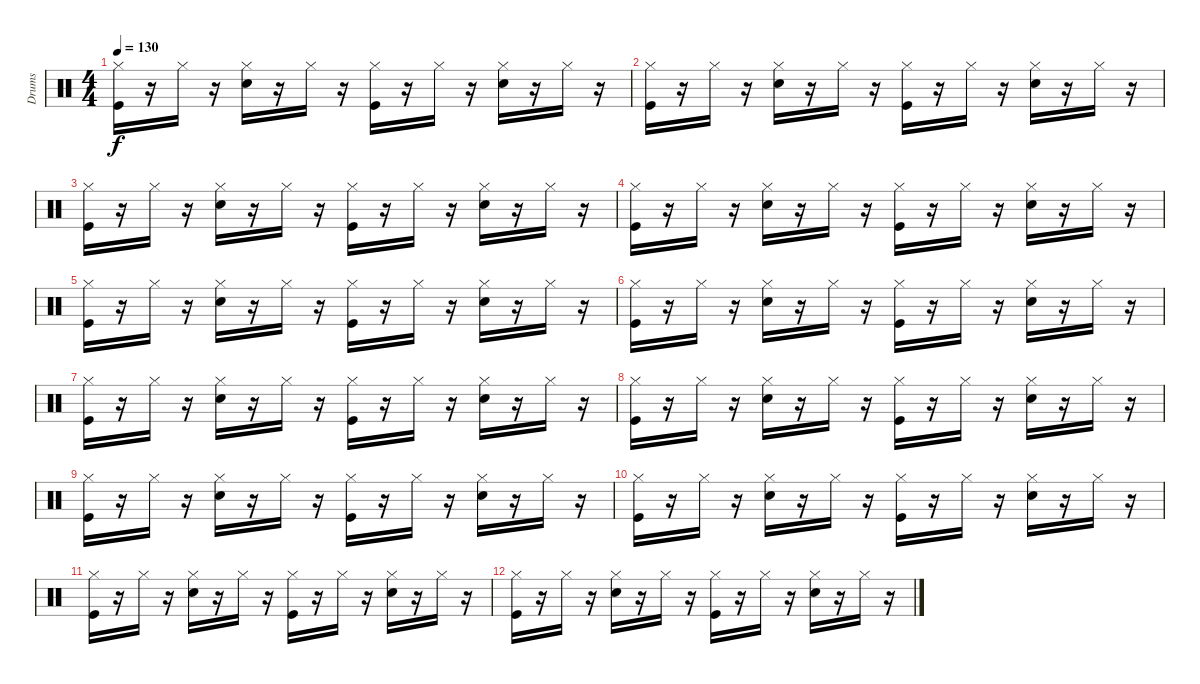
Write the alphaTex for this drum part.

\track ("Drums" "Drums") {instrument percussion}
\staff {score}
\articulation defaults
\ts (4 4)
\tempo 130
\clef neutral
\ks c
("Kick (hit)" "Hi-Hat (closed)").16{dy f volume 11} r.16 "Hi-Hat (closed)".16{volume 11} r.16 ("Snare (hit) 2" "Hi-Hat (closed)").16{volume 10} r.16 "Hi-Hat (closed)".16 r.16 ("Kick (hit)" "Hi-Hat (closed)").16{volume 10} r.16 "Hi-Hat (closed)".16{volume 10} r.16 ("Snare (hit) 2" "Hi-Hat (closed)").16{volume 10} r.16 "Hi-Hat (closed)".16{volume 10} r.16 |
("Kick (hit)" "Hi-Hat (closed)").16{volume 10} r.16 "Hi-Hat (closed)".16{volume 10} r.16 ("Snare (hit) 2" "Hi-Hat (closed)").16{volume 10} r.16 "Hi-Hat (closed)".16{volume 9} r.16 ("Kick (hit)" "Hi-Hat (closed)").16 r.16 "Hi-Hat (closed)".16{volume 9} r.16 ("Snare (hit) 2" "Hi-Hat (closed)").16{volume 9} r.16 "Hi-Hat (closed)".16{volume 9} r.16 |
("Kick (hit)" "Hi-Hat (closed)").16{volume 9} r.16 "Hi-Hat (closed)".16{volume 9} r.16 ("Snare (hit) 2" "Hi-Hat (closed)").16{volume 9} r.16 "Hi-Hat (closed)".16{volume 9} r.16 ("Kick (hit)" "Hi-Hat (closed)").16 r.16 "Hi-Hat (closed)".16{volume 8} r.16 ("Snare (hit) 2" "Hi-Hat (closed)").16{volume 8} r.16 "Hi-Hat (closed)".16{volume 8} r.16 |
("Kick (hit)" "Hi-Hat (closed)").16{volume 8} r.16 "Hi-Hat (closed)".16{volume 8} r.16 ("Snare (hit) 2" "Hi-Hat (closed)").16{volume 8} r.16 "Hi-Hat (closed)".16{volume 8} r.16 ("Kick (hit)" "Hi-Hat (closed)").16{volume 8} r.16 "Hi-Hat (closed)".16 r.16 ("Snare (hit) 2" "Hi-Hat (closed)").16{volume 7} r.16 "Hi-Hat (closed)".16{volume 7} r.16 |
("Kick (hit)" "Hi-Hat (closed)").16{volume 7} r.16 "Hi-Hat (closed)".16{volume 7} r.16 ("Snare (hit) 2" "Hi-Hat (closed)").16{volume 7} r.16 "Hi-Hat (closed)".16{volume 7} r.16 ("Kick (hit)" "Hi-Hat (closed)").16{volume 7} r.16 "Hi-Hat (closed)".16 r.16 ("Snare (hit) 2" "Hi-Hat (closed)").16{volume 7} r.16 "Hi-Hat (closed)".16{volume 6} r.16 |
("Kick (hit)" "Hi-Hat (closed)").16{volume 6} r.16 "Hi-Hat (closed)".16{volume 6} r.16 ("Snare (hit) 2" "Hi-Hat (closed)").16{volume 6} r.16 "Hi-Hat (closed)".16{volume 6} r.16 ("Kick (hit)" "Hi-Hat (closed)").16{volume 6} r.16 "Hi-Hat (closed)".16{volume 6} r.16 ("Snare (hit) 2" "Hi-Hat (closed)").16 r.16 "Hi-Hat (closed)".16{volume 6} r.16 |
("Kick (hit)" "Hi-Hat (closed)").16{volume 5} r.16 "Hi-Hat (closed)".16{volume 5} r.16 ("Snare (hit) 2" "Hi-Hat (closed)").16{volume 5} r.16 "Hi-Hat (closed)".16{volume 5} r.16 ("Kick (hit)" "Hi-Hat (closed)").16{volume 5} r.16 "Hi-Hat (closed)".16{volume 5} r.16 ("Snare (hit) 2" "Hi-Hat (closed)").16 r.16 "Hi-Hat (closed)".16{volume 5} r.16 |
("Kick (hit)" "Hi-Hat (closed)").16{volume 5} r.16 "Hi-Hat (closed)".16{volume 4} r.16 ("Snare (hit) 2" "Hi-Hat (closed)").16{volume 4} r.16 "Hi-Hat (closed)".16{volume 4} r.16 ("Kick (hit)" "Hi-Hat (closed)").16{volume 4} r.16 "Hi-Hat (closed)".16{volume 4} r.16 ("Snare (hit) 2" "Hi-Hat (closed)").16{volume 4} r.16 "Hi-Hat (closed)".16 r.16 |
("Kick (hit)" "Hi-Hat (closed)").16{volume 4} r.16 "Hi-Hat (closed)".16{volume 4} r.16 ("Snare (hit) 2" "Hi-Hat (closed)").16{volume 3} r.16 "Hi-Hat (closed)".16{volume 3} r.16 ("Kick (hit)" "Hi-Hat (closed)").16{volume 3} r.16 "Hi-Hat (closed)".16{volume 3} r.16 ("Snare (hit) 2" "Hi-Hat (closed)").16{volume 3} r.16 "Hi-Hat (closed)".16 r.16 |
("Kick (hit)" "Hi-Hat (closed)").16{volume 3} r.16 "Hi-Hat (closed)".16{volume 3} r.16 ("Snare (hit) 2" "Hi-Hat (closed)").16{volume 3} r.16 "Hi-Hat (closed)".16{volume 2} r.16 ("Kick (hit)" "Hi-Hat (closed)").16{volume 2} r.16 "Hi-Hat (closed)".16{volume 2} r.16 ("Snare (hit) 2" "Hi-Hat (closed)").16{volume 2} r.16 "Hi-Hat (closed)".16{volume 2} r.16 |
("Kick (hit)" "Hi-Hat (closed)").16 r.16 "Hi-Hat (closed)".16{volume 2} r.16 ("Snare (hit) 2" "Hi-Hat (closed)").16{volume 2} r.16 "Hi-Hat (closed)".16{volume 2} r.16 ("Kick (hit)" "Hi-Hat (closed)").16{volume 1} r.16 "Hi-Hat (closed)".16{volume 1} r.16 ("Snare (hit) 2" "Hi-Hat (closed)").16{volume 1} r.16 "Hi-Hat (closed)".16{volume 1} r.16 |
("Kick (hit)" "Hi-Hat (closed)").16 r.16 "Hi-Hat (closed)".16{volume 1} r.16 ("Snare (hit) 2" "Hi-Hat (closed)").16{volume 1} r.16 "Hi-Hat (closed)".16{volume 1} r.16 ("Kick (hit)" "Hi-Hat (closed)").16{volume 1} r.16 "Hi-Hat (closed)".16{volume 0} r.16 ("Snare (hit) 2" "Hi-Hat (closed)").16{volume 0} r.16 "Hi-Hat (closed)".16{volume 0} r.16
